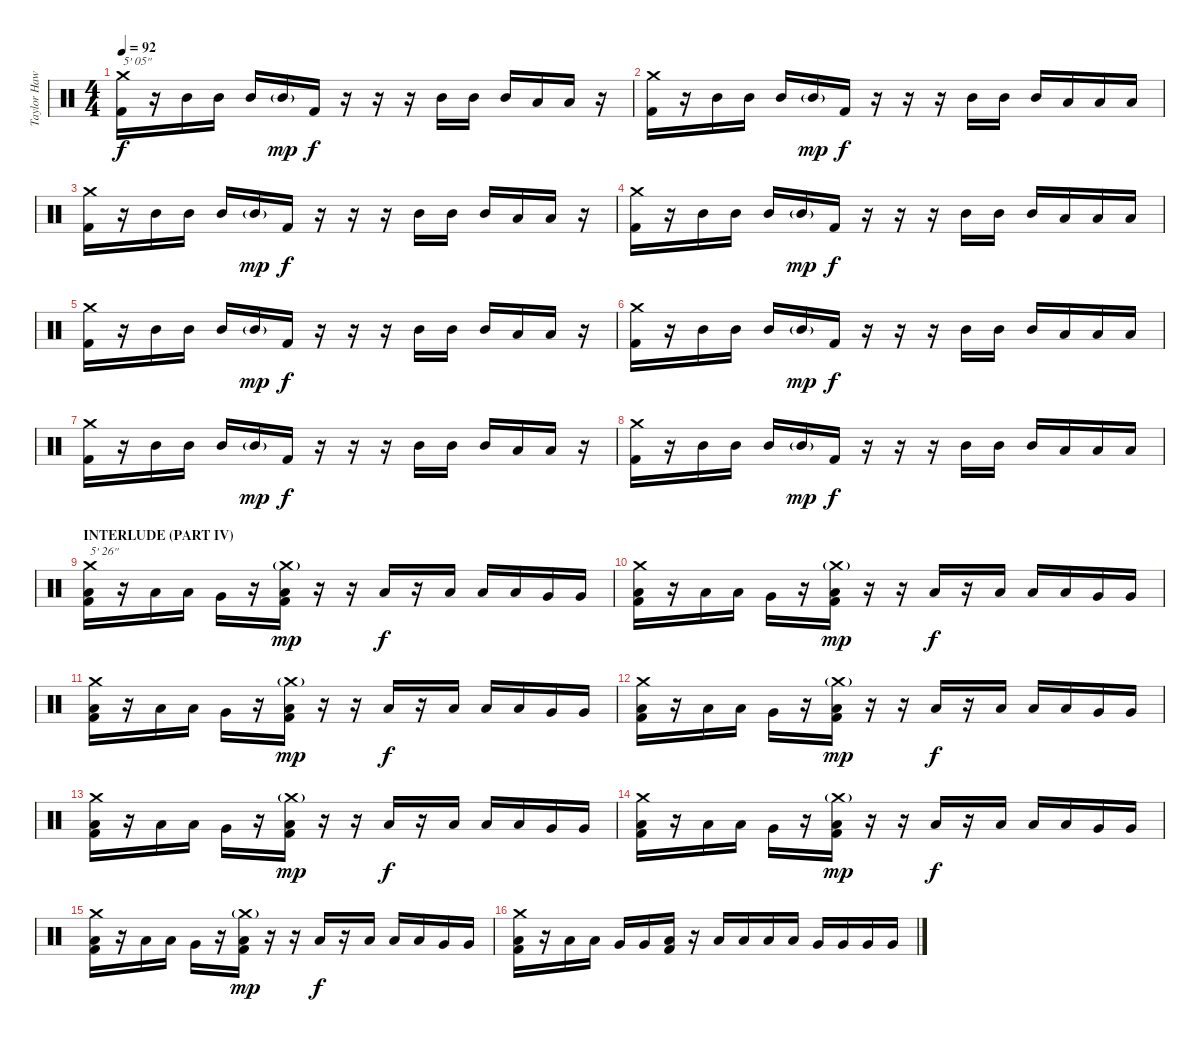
\track ("Taylor Hawkins (Drums)" "Taylor Haw") {instrument percussion}
\staff {score}
\articulation defaults
\ts (4 4)
\tempo 92
\clef neutral
\ks c
("Crash medium (hit)" "Kick (hit) 2").16{txt "5' 05''" dy f} r.16 "Mid Tom (hit)".16 "Mid Tom (hit)".16 "Mid Tom (hit)".16 "Mid Tom (hit)"{g}.16{dy mp} "Kick (hit) 2".16{dy f} r.16 r.16 r.16 "Mid Tom (hit)".16 "Mid Tom (hit)".16 "Mid Tom (hit)".16 "Low Tom (hit)".16 "Low Tom (hit)".16 r.16 |
("Crash medium (hit)" "Kick (hit) 2").16 r.16 "Mid Tom (hit)".16 "Mid Tom (hit)".16 "Mid Tom (hit)".16 "Mid Tom (hit)"{g}.16{dy mp} "Kick (hit) 2".16{dy f} r.16 r.16 r.16 "Mid Tom (hit)".16 "Mid Tom (hit)".16 "Mid Tom (hit)".16 "Low Tom (hit)".16 "Low Tom (hit)".16 "Low Tom (hit)".16 |
("Crash medium (hit)" "Kick (hit) 2").16 r.16 "Mid Tom (hit)".16 "Mid Tom (hit)".16 "Mid Tom (hit)".16 "Mid Tom (hit)"{g}.16{dy mp} "Kick (hit) 2".16{dy f} r.16 r.16 r.16 "Mid Tom (hit)".16 "Mid Tom (hit)".16 "Mid Tom (hit)".16 "Low Tom (hit)".16 "Low Tom (hit)".16 r.16 |
("Crash medium (hit)" "Kick (hit) 2").16 r.16 "Mid Tom (hit)".16 "Mid Tom (hit)".16 "Mid Tom (hit)".16 "Mid Tom (hit)"{g}.16{dy mp} "Kick (hit) 2".16{dy f} r.16 r.16 r.16 "Mid Tom (hit)".16 "Mid Tom (hit)".16 "Mid Tom (hit)".16 "Low Tom (hit)".16 "Low Tom (hit)".16 "Low Tom (hit)".16 |
("Crash medium (hit)" "Kick (hit) 2").16 r.16 "Mid Tom (hit)".16 "Mid Tom (hit)".16 "Mid Tom (hit)".16 "Mid Tom (hit)"{g}.16{dy mp} "Kick (hit) 2".16{dy f} r.16 r.16 r.16 "Mid Tom (hit)".16 "Mid Tom (hit)".16 "Mid Tom (hit)".16 "Low Tom (hit)".16 "Low Tom (hit)".16 r.16 |
("Crash medium (hit)" "Kick (hit) 2").16 r.16 "Mid Tom (hit)".16 "Mid Tom (hit)".16 "Mid Tom (hit)".16 "Mid Tom (hit)"{g}.16{dy mp} "Kick (hit) 2".16{dy f} r.16 r.16 r.16 "Mid Tom (hit)".16 "Mid Tom (hit)".16 "Mid Tom (hit)".16 "Low Tom (hit)".16 "Low Tom (hit)".16 "Low Tom (hit)".16 |
("Crash medium (hit)" "Kick (hit) 2").16 r.16 "Mid Tom (hit)".16 "Mid Tom (hit)".16 "Mid Tom (hit)".16 "Mid Tom (hit)"{g}.16{dy mp} "Kick (hit) 2".16{dy f} r.16 r.16 r.16 "Mid Tom (hit)".16 "Mid Tom (hit)".16 "Mid Tom (hit)".16 "Low Tom (hit)".16 "Low Tom (hit)".16 r.16 |
("Crash medium (hit)" "Kick (hit) 2").16 r.16 "Mid Tom (hit)".16 "Mid Tom (hit)".16 "Mid Tom (hit)".16 "Mid Tom (hit)"{g}.16{dy mp} "Kick (hit) 2".16{dy f} r.16 r.16 r.16 "Mid Tom (hit)".16 "Mid Tom (hit)".16 "Mid Tom (hit)".16 "Low Tom (hit)".16 "Low Tom (hit)".16 "Low Tom (hit)".16 |
\section ("" "INTERLUDE (PART IV)")
("Crash medium (hit)" "Low Tom (hit)" "Kick (hit) 2").16{txt "5' 26''"} r.16 "Low Tom (hit)".16 "Low Tom (hit)".16 "Very Low Tom (hit)".16 r.16 ("Crash medium (hit)"{g} "Low Tom (hit)" "Kick (hit) 2").16{dy mp} r.16 r.16 "Low Tom (hit)".16{dy f} r.16 "Low Tom (hit)".16 "Low Tom (hit)".16 "Low Tom (hit)".16 "Very Low Tom (hit)".16 "Very Low Tom (hit)".16 |
("Crash medium (hit)" "Low Tom (hit)" "Kick (hit) 2").16 r.16 "Low Tom (hit)".16 "Low Tom (hit)".16 "Very Low Tom (hit)".16 r.16 ("Crash medium (hit)"{g} "Low Tom (hit)" "Kick (hit) 2").16{dy mp} r.16 r.16 "Low Tom (hit)".16{dy f} r.16 "Low Tom (hit)".16 "Low Tom (hit)".16 "Low Tom (hit)".16 "Very Low Tom (hit)".16 "Very Low Tom (hit)".16 |
("Crash medium (hit)" "Low Tom (hit)" "Kick (hit) 2").16 r.16 "Low Tom (hit)".16 "Low Tom (hit)".16 "Very Low Tom (hit)".16 r.16 ("Crash medium (hit)"{g} "Low Tom (hit)" "Kick (hit) 2").16{dy mp} r.16 r.16 "Low Tom (hit)".16{dy f} r.16 "Low Tom (hit)".16 "Low Tom (hit)".16 "Low Tom (hit)".16 "Very Low Tom (hit)".16 "Very Low Tom (hit)".16 |
("Crash medium (hit)" "Low Tom (hit)" "Kick (hit) 2").16 r.16 "Low Tom (hit)".16 "Low Tom (hit)".16 "Very Low Tom (hit)".16 r.16 ("Crash medium (hit)"{g} "Low Tom (hit)" "Kick (hit) 2").16{dy mp} r.16 r.16 "Low Tom (hit)".16{dy f} r.16 "Low Tom (hit)".16 "Low Tom (hit)".16 "Low Tom (hit)".16 "Very Low Tom (hit)".16 "Very Low Tom (hit)".16 |
("Crash medium (hit)" "Low Tom (hit)" "Kick (hit) 2").16 r.16 "Low Tom (hit)".16 "Low Tom (hit)".16 "Very Low Tom (hit)".16 r.16 ("Crash medium (hit)"{g} "Low Tom (hit)" "Kick (hit) 2").16{dy mp} r.16 r.16 "Low Tom (hit)".16{dy f} r.16 "Low Tom (hit)".16 "Low Tom (hit)".16 "Low Tom (hit)".16 "Very Low Tom (hit)".16 "Very Low Tom (hit)".16 |
("Crash medium (hit)" "Low Tom (hit)" "Kick (hit) 2").16 r.16 "Low Tom (hit)".16 "Low Tom (hit)".16 "Very Low Tom (hit)".16 r.16 ("Crash medium (hit)"{g} "Low Tom (hit)" "Kick (hit) 2").16{dy mp} r.16 r.16 "Low Tom (hit)".16{dy f} r.16 "Low Tom (hit)".16 "Low Tom (hit)".16 "Low Tom (hit)".16 "Very Low Tom (hit)".16 "Very Low Tom (hit)".16 |
("Crash medium (hit)" "Low Tom (hit)" "Kick (hit) 2").16 r.16 "Low Tom (hit)".16 "Low Tom (hit)".16 "Very Low Tom (hit)".16 r.16 ("Crash medium (hit)"{g} "Low Tom (hit)" "Kick (hit) 2").16{dy mp} r.16 r.16 "Low Tom (hit)".16{dy f} r.16 "Low Tom (hit)".16 "Low Tom (hit)".16 "Low Tom (hit)".16 "Very Low Tom (hit)".16 "Very Low Tom (hit)".16 |
("Crash medium (hit)" "Low Tom (hit)" "Kick (hit) 2").16 r.16 "Low Tom (hit)".16 "Low Tom (hit)".16 "Very Low Tom (hit)".16 "Very Low Tom (hit)".16 ("Low Tom (hit)" "Kick (hit) 2").16 r.16 "Low Tom (hit)".16 "Low Tom (hit)".16 "Low Tom (hit)".16 "Low Tom (hit)".16 "Very Low Tom (hit)".16 "Very Low Tom (hit)".16 "Very Low Tom (hit)".16 "Very Low Tom (hit)".16
